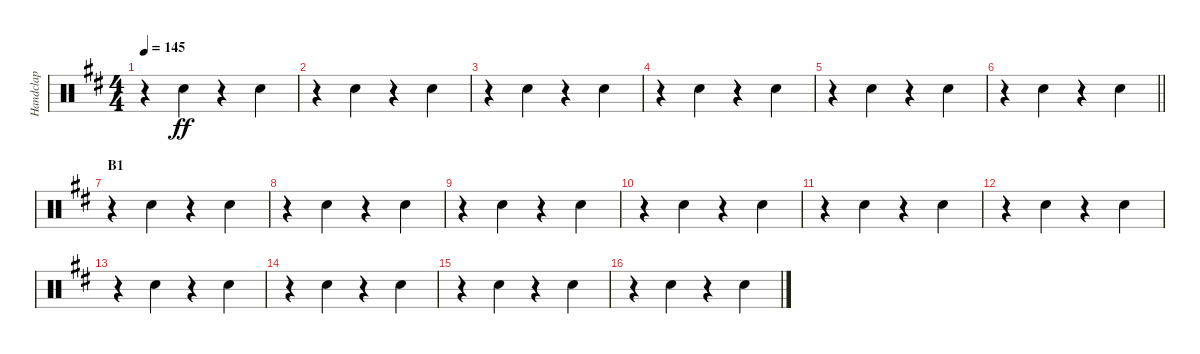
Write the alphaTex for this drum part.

\track ("Handclap" "Handclap") {instrument percussion}
\staff {score}
\articulation defaults
\ts (4 4)
\tempo 145
\clef neutral
\ks d
r.4{dy ff} "Hand Clap (hit)".4 r.4 "Hand Clap (hit)".4 |
r.4 "Hand Clap (hit)".4 r.4 "Hand Clap (hit)".4 |
r.4 "Hand Clap (hit)".4 r.4 "Hand Clap (hit)".4 |
r.4 "Hand Clap (hit)".4 r.4 "Hand Clap (hit)".4 |
r.4 "Hand Clap (hit)".4 r.4 "Hand Clap (hit)".4 |
\barLineRight lightlight
r.4 "Hand Clap (hit)".4 r.4 "Hand Clap (hit)".4 |
\section ("" "B1")
r.4 "Hand Clap (hit)".4 r.4 "Hand Clap (hit)".4 |
r.4 "Hand Clap (hit)".4 r.4 "Hand Clap (hit)".4 |
r.4 "Hand Clap (hit)".4 r.4 "Hand Clap (hit)".4 |
r.4 "Hand Clap (hit)".4 r.4 "Hand Clap (hit)".4 |
r.4 "Hand Clap (hit)".4 r.4 "Hand Clap (hit)".4 |
r.4 "Hand Clap (hit)".4 r.4 "Hand Clap (hit)".4 |
r.4 "Hand Clap (hit)".4 r.4 "Hand Clap (hit)".4 |
r.4 "Hand Clap (hit)".4 r.4 "Hand Clap (hit)".4 |
r.4 "Hand Clap (hit)".4 r.4 "Hand Clap (hit)".4 |
r.4 "Hand Clap (hit)".4 r.4 "Hand Clap (hit)".4
